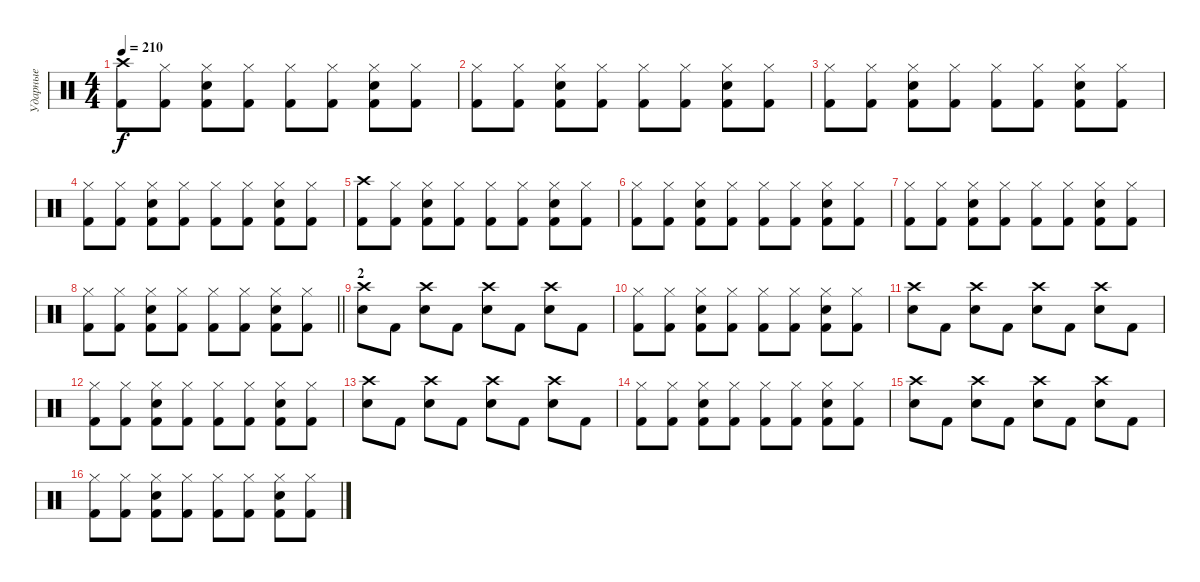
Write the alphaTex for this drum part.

\track ("Ударные" "Ударные") {instrument percussion}
\staff {score}
\articulation defaults
\ts (4 4)
\tempo 210
\clef neutral
\ks c
("Crash high (hit)" "Kick (hit) 2").8{dy f} ("Hi-Hat (closed)" "Kick (hit) 2").8 ("Hi-Hat (closed)" "Electric Snare (hit)" "Kick (hit) 2").8 ("Hi-Hat (closed)" "Kick (hit) 2").8 ("Hi-Hat (closed)" "Kick (hit) 2").8 ("Hi-Hat (closed)" "Kick (hit) 2").8 ("Hi-Hat (closed)" "Electric Snare (hit)" "Kick (hit) 2").8 ("Hi-Hat (closed)" "Kick (hit) 2").8 |
("Hi-Hat (closed)" "Kick (hit) 2").8 ("Hi-Hat (closed)" "Kick (hit) 2").8 ("Hi-Hat (closed)" "Electric Snare (hit)" "Kick (hit) 2").8 ("Hi-Hat (closed)" "Kick (hit) 2").8 ("Hi-Hat (closed)" "Kick (hit) 2").8 ("Hi-Hat (closed)" "Kick (hit) 2").8 ("Hi-Hat (closed)" "Electric Snare (hit)" "Kick (hit) 2").8 ("Hi-Hat (closed)" "Kick (hit) 2").8 |
("Hi-Hat (closed)" "Kick (hit) 2").8 ("Hi-Hat (closed)" "Kick (hit) 2").8 ("Hi-Hat (closed)" "Electric Snare (hit)" "Kick (hit) 2").8 ("Hi-Hat (closed)" "Kick (hit) 2").8 ("Hi-Hat (closed)" "Kick (hit) 2").8 ("Hi-Hat (closed)" "Kick (hit) 2").8 ("Hi-Hat (closed)" "Electric Snare (hit)" "Kick (hit) 2").8 ("Hi-Hat (closed)" "Kick (hit) 2").8 |
("Hi-Hat (closed)" "Kick (hit) 2").8 ("Hi-Hat (closed)" "Kick (hit) 2").8 ("Hi-Hat (closed)" "Electric Snare (hit)" "Kick (hit) 2").8 ("Hi-Hat (closed)" "Kick (hit) 2").8 ("Hi-Hat (closed)" "Kick (hit) 2").8 ("Hi-Hat (closed)" "Kick (hit) 2").8 ("Hi-Hat (closed)" "Electric Snare (hit)" "Kick (hit) 2").8 ("Hi-Hat (closed)" "Kick (hit) 2").8 |
("Crash high (hit)" "Kick (hit) 2").8 ("Hi-Hat (closed)" "Kick (hit) 2").8 ("Hi-Hat (closed)" "Electric Snare (hit)" "Kick (hit) 2").8 ("Hi-Hat (closed)" "Kick (hit) 2").8 ("Hi-Hat (closed)" "Kick (hit) 2").8 ("Hi-Hat (closed)" "Kick (hit) 2").8 ("Hi-Hat (closed)" "Electric Snare (hit)" "Kick (hit) 2").8 ("Hi-Hat (closed)" "Kick (hit) 2").8 |
("Hi-Hat (closed)" "Kick (hit) 2").8 ("Hi-Hat (closed)" "Kick (hit) 2").8 ("Hi-Hat (closed)" "Electric Snare (hit)" "Kick (hit) 2").8 ("Hi-Hat (closed)" "Kick (hit) 2").8 ("Hi-Hat (closed)" "Kick (hit) 2").8 ("Hi-Hat (closed)" "Kick (hit) 2").8 ("Hi-Hat (closed)" "Electric Snare (hit)" "Kick (hit) 2").8 ("Hi-Hat (closed)" "Kick (hit) 2").8 |
("Hi-Hat (closed)" "Kick (hit) 2").8 ("Hi-Hat (closed)" "Kick (hit) 2").8 ("Hi-Hat (closed)" "Electric Snare (hit)" "Kick (hit) 2").8 ("Hi-Hat (closed)" "Kick (hit) 2").8 ("Hi-Hat (closed)" "Kick (hit) 2").8 ("Hi-Hat (closed)" "Kick (hit) 2").8 ("Hi-Hat (closed)" "Electric Snare (hit)" "Kick (hit) 2").8 ("Hi-Hat (closed)" "Kick (hit) 2").8 |
\barLineRight lightlight
("Hi-Hat (closed)" "Kick (hit) 2").8 ("Hi-Hat (closed)" "Kick (hit) 2").8 ("Hi-Hat (closed)" "Electric Snare (hit)" "Kick (hit) 2").8 ("Hi-Hat (closed)" "Kick (hit) 2").8 ("Hi-Hat (closed)" "Kick (hit) 2").8 ("Hi-Hat (closed)" "Kick (hit) 2").8 ("Hi-Hat (closed)" "Electric Snare (hit)" "Kick (hit) 2").8 ("Hi-Hat (closed)" "Kick (hit) 2").8 |
\section ("" "2")
("Electric Snare (hit)" "Crash high (hit)").8 "Kick (hit) 2".8 ("Electric Snare (hit)" "Crash high (hit)").8 "Kick (hit) 2".8 ("Electric Snare (hit)" "Crash high (hit)").8 "Kick (hit) 2".8 ("Electric Snare (hit)" "Crash high (hit)").8 "Kick (hit) 2".8 |
("Hi-Hat (closed)" "Kick (hit) 2").8 ("Hi-Hat (closed)" "Kick (hit) 2").8 ("Hi-Hat (closed)" "Electric Snare (hit)" "Kick (hit) 2").8 ("Hi-Hat (closed)" "Kick (hit) 2").8 ("Hi-Hat (closed)" "Kick (hit) 2").8 ("Hi-Hat (closed)" "Kick (hit) 2").8 ("Hi-Hat (closed)" "Electric Snare (hit)" "Kick (hit) 2").8 ("Hi-Hat (closed)" "Kick (hit) 2").8 |
("Electric Snare (hit)" "Crash high (hit)").8 "Kick (hit) 2".8 ("Electric Snare (hit)" "Crash high (hit)").8 "Kick (hit) 2".8 ("Electric Snare (hit)" "Crash high (hit)").8 "Kick (hit) 2".8 ("Electric Snare (hit)" "Crash high (hit)").8 "Kick (hit) 2".8 |
("Hi-Hat (closed)" "Kick (hit) 2").8 ("Hi-Hat (closed)" "Kick (hit) 2").8 ("Hi-Hat (closed)" "Electric Snare (hit)" "Kick (hit) 2").8 ("Hi-Hat (closed)" "Kick (hit) 2").8 ("Hi-Hat (closed)" "Kick (hit) 2").8 ("Hi-Hat (closed)" "Kick (hit) 2").8 ("Hi-Hat (closed)" "Electric Snare (hit)" "Kick (hit) 2").8 ("Hi-Hat (closed)" "Kick (hit) 2").8 |
("Electric Snare (hit)" "Crash high (hit)").8 "Kick (hit) 2".8 ("Electric Snare (hit)" "Crash high (hit)").8 "Kick (hit) 2".8 ("Electric Snare (hit)" "Crash high (hit)").8 "Kick (hit) 2".8 ("Electric Snare (hit)" "Crash high (hit)").8 "Kick (hit) 2".8 |
("Hi-Hat (closed)" "Kick (hit) 2").8 ("Hi-Hat (closed)" "Kick (hit) 2").8 ("Hi-Hat (closed)" "Electric Snare (hit)" "Kick (hit) 2").8 ("Hi-Hat (closed)" "Kick (hit) 2").8 ("Hi-Hat (closed)" "Kick (hit) 2").8 ("Hi-Hat (closed)" "Kick (hit) 2").8 ("Hi-Hat (closed)" "Electric Snare (hit)" "Kick (hit) 2").8 ("Hi-Hat (closed)" "Kick (hit) 2").8 |
("Electric Snare (hit)" "Crash high (hit)").8 "Kick (hit) 2".8 ("Electric Snare (hit)" "Crash high (hit)").8 "Kick (hit) 2".8 ("Electric Snare (hit)" "Crash high (hit)").8 "Kick (hit) 2".8 ("Electric Snare (hit)" "Crash high (hit)").8 "Kick (hit) 2".8 |
("Hi-Hat (closed)" "Kick (hit) 2").8 ("Hi-Hat (closed)" "Kick (hit) 2").8 ("Hi-Hat (closed)" "Electric Snare (hit)" "Kick (hit) 2").8 ("Hi-Hat (closed)" "Kick (hit) 2").8 ("Hi-Hat (closed)" "Kick (hit) 2").8 ("Hi-Hat (closed)" "Kick (hit) 2").8 ("Hi-Hat (closed)" "Electric Snare (hit)" "Kick (hit) 2").8 ("Hi-Hat (closed)" "Kick (hit) 2").8
